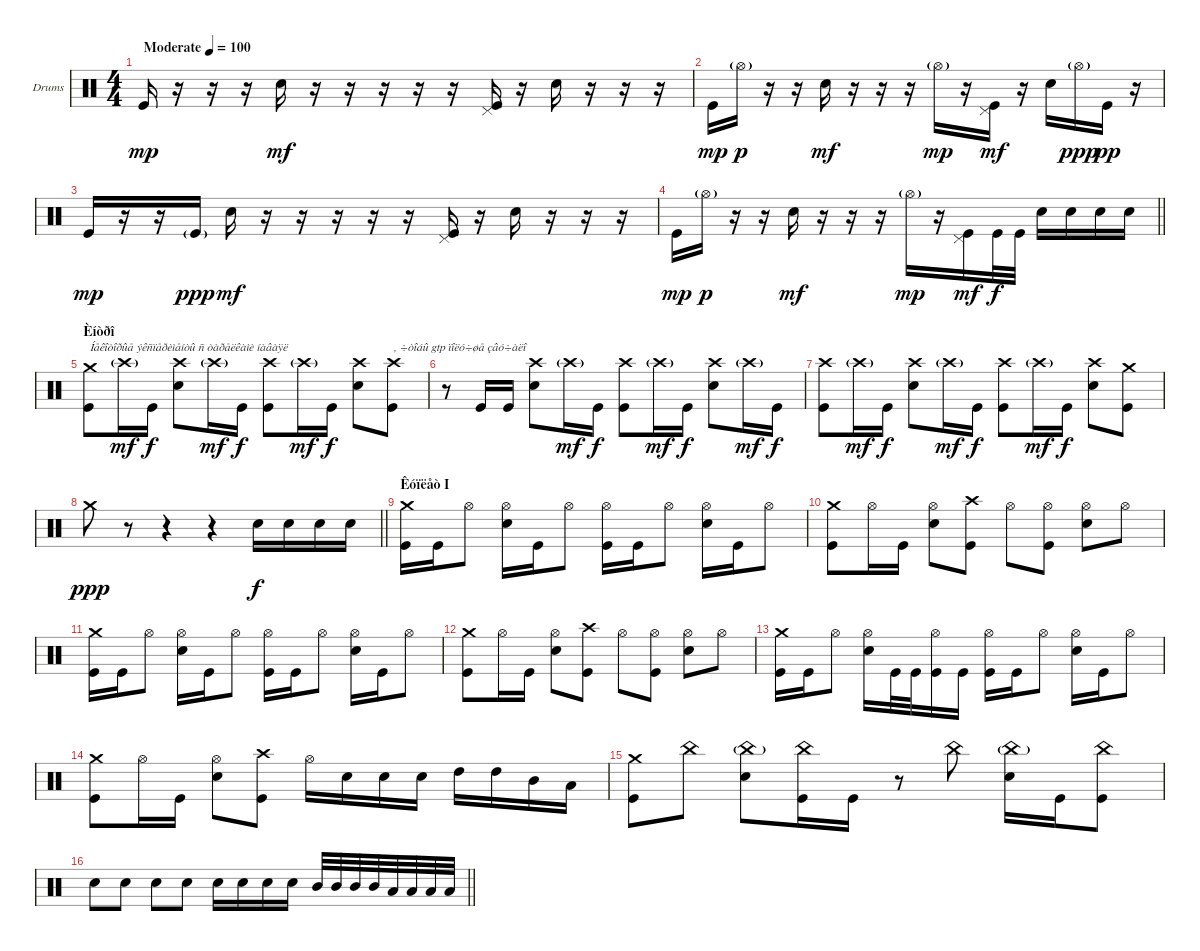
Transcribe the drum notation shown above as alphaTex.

\bracketExtendMode groupsimilarinstruments
\firstSystemTrackNameOrientation horizontal
\otherSystemsTrackNameOrientation horizontal
\track ("Drumkit" "Drums") {instrument percussion}
\staff {score}
\articulation defaults
\ts (4 4)
\beaming (8 2 2 2 2)
\tempo (100 "Moderate")
\clef neutral
\ks c "Kick (hit)".16{dy mp}
r.16 r.16 r.16 "Snare (hit) 2".16{dy mf} r.16 r.16 r.16 r.16 r.16 ("Pedal Hi-Hat (hit)" "Kick (hit)").16 r.16 "Snare (hit) 2".16 r.16 r.16 r.16 |
"Kick (hit)".16{dy mp} "Hi-Hat (open)"{g}.16{dy p} r.16 r.16 "Snare (hit) 2".16{dy mf} r.16 r.16 r.16 "Hi-Hat (open)"{g}.16{dy mp} r.16 ("Pedal Hi-Hat (hit)" "Kick (hit)").16{dy mf} r.16 "Snare (hit) 2".16 "Hi-Hat (open)"{g}.16{dy ppp} "Kick (hit)".16{dy pp} r.16 |
"Kick (hit)".16{dy mp} r.16 r.16 "Kick (hit)"{g}.16{dy ppp} "Snare (hit) 2".16{dy mf} r.16 r.16 r.16 r.16 r.16 ("Pedal Hi-Hat (hit)" "Kick (hit)").16 r.16 "Snare (hit) 2".16 r.16 r.16 r.16 |
\barLineRight lightlight "Kick (hit)".16{dy mp} "Hi-Hat (open)"{g}.16{dy p}
r.16 r.16 "Snare (hit) 2".16{dy mf} r.16 r.16 r.16 "Hi-Hat (open)"{g}.16{dy mp} r.16 ("Pedal Hi-Hat (hit)" "Kick (hit)").16{dy mf} "Kick (hit)".32{dy f} "Kick (hit)".32 "Snare (hit) 2".16 "Snare (hit) 2".16 "Snare (hit) 2".16 "Snare (hit) 2".16 |
\section ("" "Èíòðî")
("Crash medium (hit)" "Kick (hit)").8{txt "Íåêîòîðûå ýêñïåðèìåíòû ñ òàðåëêàìè íàâàÿë"} "Crash high (hit)"{g}.16{dy mf} "Kick (hit)".16{dy f} ("Crash high (hit)" "Snare (hit) 2").8 "Crash high (hit)"{g}.16{dy mf} "Kick (hit)".16{dy f} ("Crash high (hit)" "Kick (hit)").8 "Crash high (hit)"{g}.16{dy mf} "Kick (hit)".16{dy f} ("Crash high (hit)" "Snare (hit) 2").8 ("Crash high (hit)" "Kick (hit)").8{txt ", ÷òîáû gtp ïîëó÷øå çâó÷àëî"} |
r.8 "Kick (hit)".16 "Kick (hit)".16 ("Crash high (hit)" "Snare (hit) 2").8 "Crash high (hit)"{g}.16{dy mf} "Kick (hit)".16{dy f} ("Crash high (hit)" "Kick (hit)").8 "Crash high (hit)"{g}.16{dy mf} "Kick (hit)".16{dy f} ("Crash high (hit)" "Snare (hit) 2").8 "Crash high (hit)"{g}.16{dy mf} "Kick (hit)".16{dy f} |
("Crash high (hit)" "Kick (hit)").8 "Crash high (hit)"{g}.16{dy mf} "Kick (hit)".16{dy f} ("Crash high (hit)" "Snare (hit) 2").8 "Crash high (hit)"{g}.16{dy mf} "Kick (hit)".16{dy f} ("Crash high (hit)" "Kick (hit)").8 "Crash high (hit)"{g}.16{dy mf} "Kick (hit)".16{dy f} ("Crash high (hit)" "Snare (hit) 2").8 ("Crash medium (hit)" "Kick (hit)").8 |
\barLineRight lightlight "Crash medium (hit)".8{dy ppp}
r.8 r.4 r.4 "Snare (hit) 2".16{dy f} "Snare (hit) 2".16 "Snare (hit) 2".16 "Snare (hit) 2".16 |
\section ("" "Êóïëåò I")
("Crash medium (hit)" "Kick (hit)").16 "Kick (hit)".16 "Hi-Hat (open)".8 ("Hi-Hat (open)" "Snare (hit) 2").16 "Kick (hit)".16 "Hi-Hat (open)".8 ("Hi-Hat (open)" "Kick (hit)").16 "Kick (hit)".16 "Hi-Hat (open)".8 ("Hi-Hat (open)" "Snare (hit) 2").16 "Kick (hit)".16 "Hi-Hat (open)".8 |
("Crash medium (hit)" "Kick (hit)").8 "Hi-Hat (open)".16 "Kick (hit)".16 ("Hi-Hat (open)" "Snare (hit) 2").8 ("Crash high (hit)" "Kick (hit)").8 "Hi-Hat (open)".8 ("Hi-Hat (open)" "Kick (hit)").8 ("Hi-Hat (open)" "Snare (hit) 2").8 "Hi-Hat (open)".8 |
("Crash medium (hit)" "Kick (hit)").16 "Kick (hit)".16 "Hi-Hat (open)".8 ("Hi-Hat (open)" "Snare (hit) 2").16 "Kick (hit)".16 "Hi-Hat (open)".8 ("Hi-Hat (open)" "Kick (hit)").16 "Kick (hit)".16 "Hi-Hat (open)".8 ("Hi-Hat (open)" "Snare (hit) 2").16 "Kick (hit)".16 "Hi-Hat (open)".8 |
("Crash medium (hit)" "Kick (hit)").8 "Hi-Hat (open)".16 "Kick (hit)".16 ("Hi-Hat (open)" "Snare (hit) 2").8 ("Crash high (hit)" "Kick (hit)").8 "Hi-Hat (open)".8 ("Hi-Hat (open)" "Kick (hit)").8 ("Hi-Hat (open)" "Snare (hit) 2").8 "Hi-Hat (open)".8 |
("Crash medium (hit)" "Kick (hit)").16 "Kick (hit)".16 "Hi-Hat (open)".8 ("Hi-Hat (open)" "Snare (hit) 2").16 "Kick (hit)".32 "Kick (hit)".32 ("Hi-Hat (open)" "Kick (hit)").16 "Kick (hit)".16 ("Hi-Hat (open)" "Kick (hit)").16 "Kick (hit)".16 "Hi-Hat (open)".8 ("Hi-Hat (open)" "Snare (hit) 2").16 "Kick (hit)".16 "Hi-Hat (open)".8 |
("Crash medium (hit)" "Kick (hit)").8 "Hi-Hat (open)".16 "Kick (hit)".16 ("Hi-Hat (open)" "Snare (hit) 2").8 ("Crash high (hit)" "Kick (hit)").8 "Hi-Hat (open)".16 "Snare (hit) 2".16 "Snare (hit) 2".16 "Snare (hit) 2".16 "High Tom (hit)".16 "High Tom (hit)".16 "Mid Tom (hit)".16 "Low Tom (hit)".16 |
("Crash medium (hit)" "Kick (hit)").8 "China (hit)".8 ("China (hit)"{g} "Snare (hit) 2").8 ("China (hit)" "Kick (hit)").16 "Kick (hit)".16 r.8 "China (hit)".8 ("China (hit)"{g} "Snare (hit) 2").16 "Kick (hit)".16 ("China (hit)" "Kick (hit)").8 |
\barLineRight lightlight "Snare (hit) 2".8 "Snare (hit) 2".8 "Snare (hit) 2".8 "Snare (hit) 2".8 "Snare (hit) 2".16 "Snare (hit) 2".16 "Snare (hit) 2".16 "Snare (hit) 2".16 "Mid Tom (hit)".32 "Mid Tom (hit)".32 "Mid Tom (hit)".32 "Mid Tom (hit)".32 "Low Tom (hit)".32 "Low Tom (hit)".32 "Low Tom (hit)".32 "Low Tom (hit)".32
